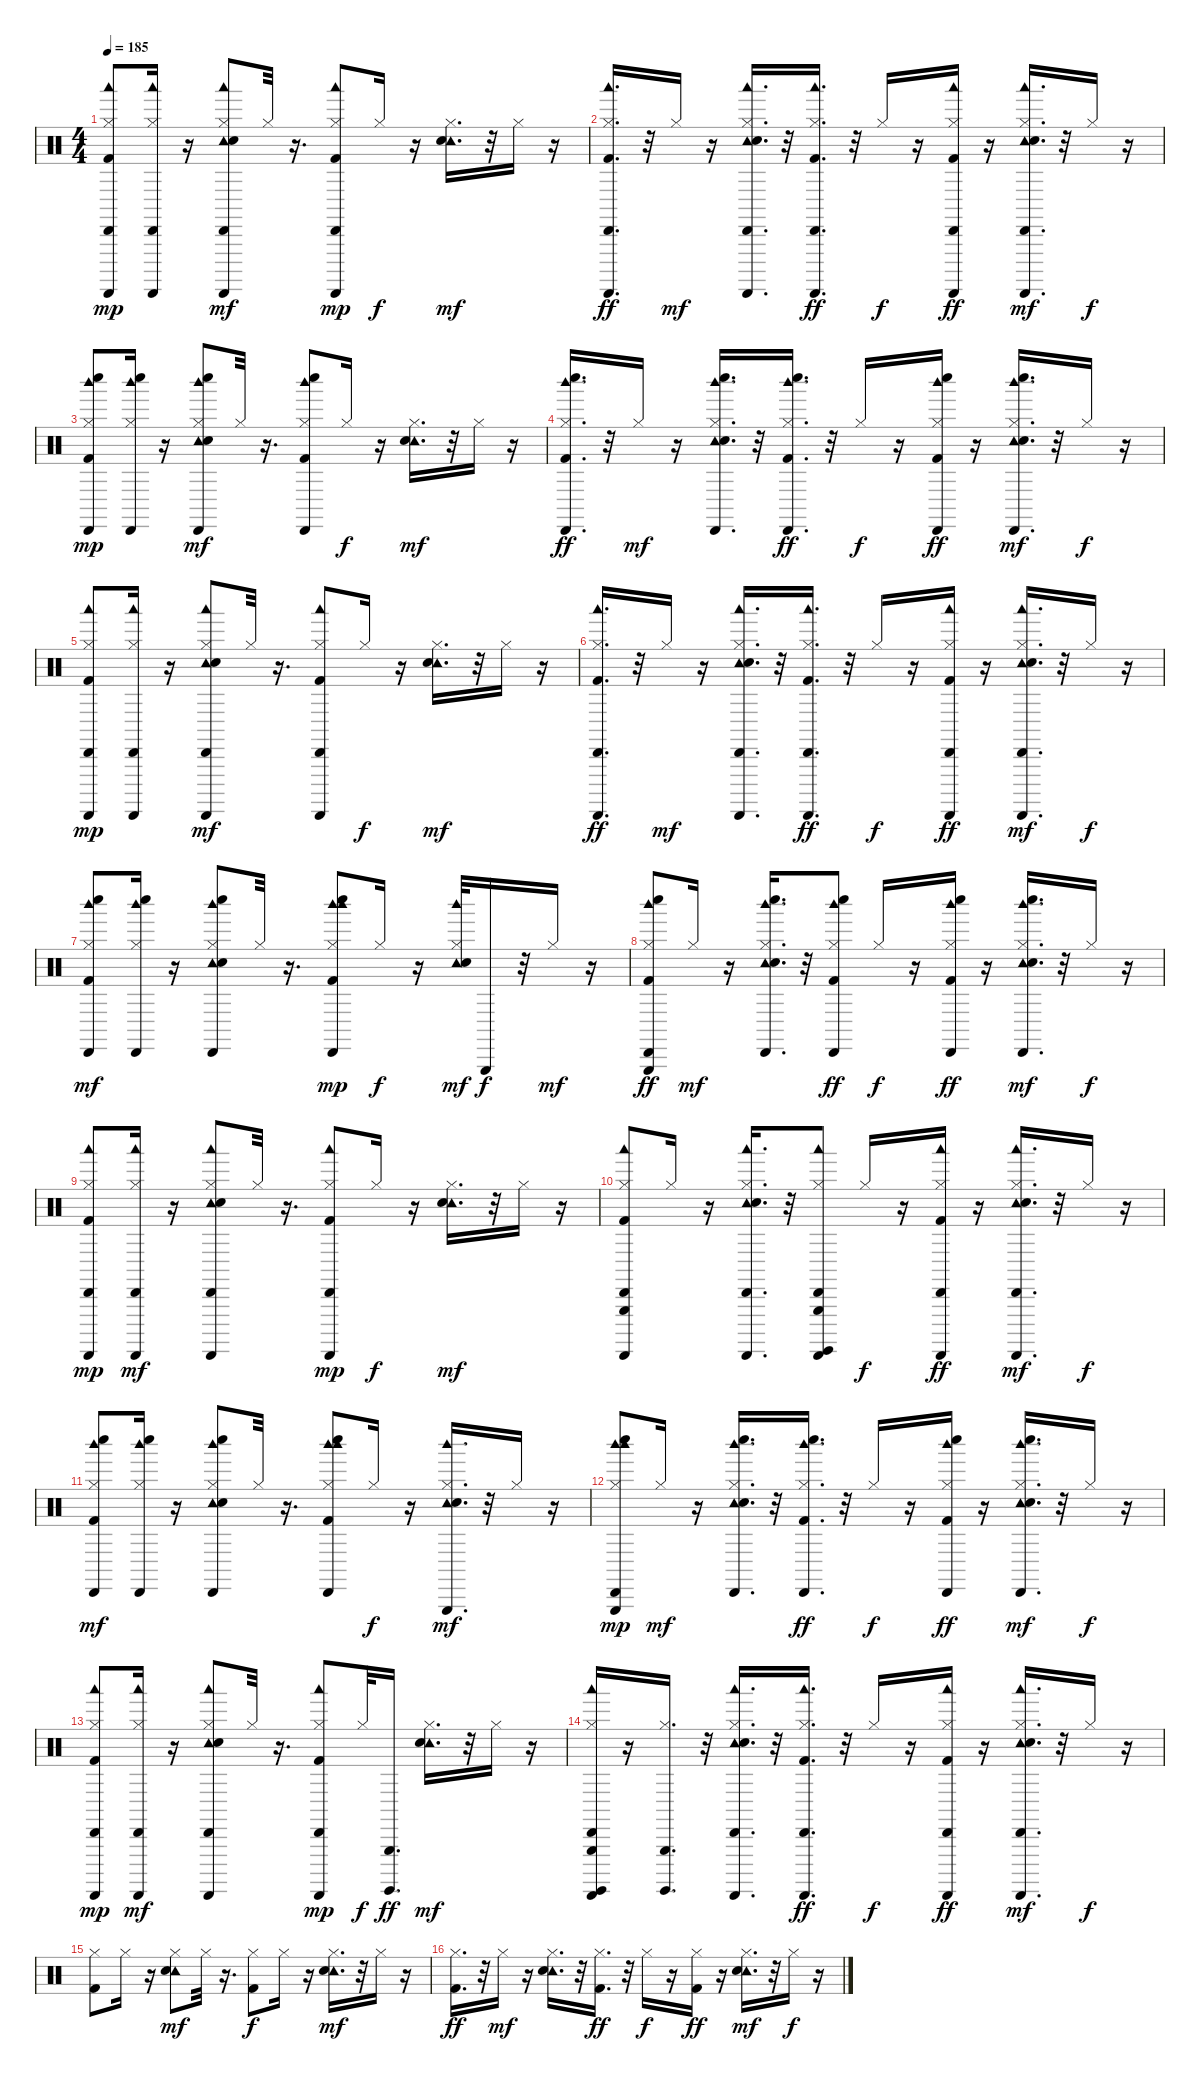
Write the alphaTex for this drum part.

\track "" {instrument percussion}
\staff {score}
\articulation defaults
\ts (4 4)
\tempo 185
\clef neutral
\ks c
("Cabasa (hit)" "Woodblock low (hit)" "Guiro (scrap-return)" "Hi-Hat (closed)" "Kick (hit) 2").8{dy mp} ("Cabasa (hit)" "Guiro (scrap-return)" "Woodblock low (hit)" "Hi-Hat (closed)").16 r.16 ("Cabasa (hit)" "Woodblock low (hit)" "Guiro (scrap-return)" "Tambourine (hit)" "Hi-Hat (closed)" "Snare (hit) 2").8{dy mf} "Hi-Hat (closed)".32 r.16{d} ("Woodblock low (hit)" "Cabasa (hit)" "Guiro (scrap-return)" "Hi-Hat (closed)" "Kick (hit) 2").8{dy mp} "Hi-Hat (closed)".16{dy f} r.16 ("Tambourine (hit)" "Hi-Hat (closed)" "Snare (hit) 2").16{d dy mf} r.32 "Hi-Hat (closed)".16 r.16 |
("Cabasa (hit)" "Guiro (scrap-return)" "Woodblock low (hit)" "Hi-Hat (closed)" "Kick (hit) 2").16{d dy ff} r.32 "Hi-Hat (closed)".16{dy mf} r.16 ("Guiro (scrap-return)" "Cabasa (hit)" "Woodblock low (hit)" "Tambourine (hit)" "Hi-Hat (closed)" "Snare (hit) 2").16{d} r.32 ("Cabasa (hit)" "Woodblock low (hit)" "Guiro (scrap-return)" "Hi-Hat (closed)" "Kick (hit) 2").16{d dy ff} r.32 "Hi-Hat (closed)".16{dy f} r.16 ("Cabasa (hit)" "Woodblock low (hit)" "Guiro (scrap-return)" "Hi-Hat (closed)" "Kick (hit) 2").16{dy ff} r.16 ("Woodblock low (hit)" "Cabasa (hit)" "Guiro (scrap-return)" "Tambourine (hit)" "Hi-Hat (closed)" "Snare (hit) 2").16{d dy mf} r.32 "Hi-Hat (closed)".16{dy f} r.16 |
("Whistle low (hit)" "Woodblock high (hit)" "Cabasa (hit)" "Hi-Hat (closed)" "Kick (hit) 2").8{dy mp} ("Cabasa (hit)" "Woodblock high (hit)" "Whistle low (hit)" "Hi-Hat (closed)").16 r.16 ("Whistle low (hit)" "Cabasa (hit)" "Woodblock high (hit)" "Tambourine (hit)" "Hi-Hat (closed)" "Snare (hit) 2").8{dy mf} "Hi-Hat (closed)".32 r.16{d} ("Cabasa (hit)" "Woodblock high (hit)" "Whistle low (hit)" "Hi-Hat (closed)" "Kick (hit) 2").8 "Hi-Hat (closed)".16{dy f} r.16 ("Tambourine (hit)" "Hi-Hat (closed)" "Snare (hit) 2").16{d dy mf} r.32 "Hi-Hat (closed)".16 r.16 |
("Cabasa (hit)" "Whistle low (hit)" "Woodblock high (hit)" "Hi-Hat (closed)" "Kick (hit) 2").16{d dy ff} r.32 "Hi-Hat (closed)".16{dy mf} r.16 ("Whistle low (hit)" "Cabasa (hit)" "Woodblock high (hit)" "Tambourine (hit)" "Hi-Hat (closed)" "Snare (hit) 2").16{d} r.32 ("Whistle low (hit)" "Cabasa (hit)" "Woodblock high (hit)" "Hi-Hat (closed)" "Kick (hit) 2").16{d dy ff} r.32 "Hi-Hat (closed)".16{dy f} r.16 ("Cabasa (hit)" "Whistle low (hit)" "Woodblock high (hit)" "Hi-Hat (closed)" "Kick (hit) 2").16{dy ff} r.16 ("Cabasa (hit)" "Whistle low (hit)" "Woodblock high (hit)" "Tambourine (hit)" "Hi-Hat (closed)" "Snare (hit) 2").16{d dy mf} r.32 "Hi-Hat (closed)".16{dy f} r.16 |
("Cabasa (hit)" "Woodblock low (hit)" "Guiro (scrap-return)" "Hi-Hat (closed)" "Kick (hit) 2").8{dy mp} ("Woodblock low (hit)" "Cabasa (hit)" "Guiro (scrap-return)" "Hi-Hat (closed)").16 r.16 ("Woodblock low (hit)" "Guiro (scrap-return)" "Cabasa (hit)" "Tambourine (hit)" "Hi-Hat (closed)" "Snare (hit) 2").8{dy mf} "Hi-Hat (closed)".32 r.16{d} ("Woodblock low (hit)" "Guiro (scrap-return)" "Cabasa (hit)" "Hi-Hat (closed)" "Kick (hit) 2").8 "Hi-Hat (closed)".16{dy f} r.16 ("Tambourine (hit)" "Hi-Hat (closed)" "Snare (hit) 2").16{d dy mf} r.32 "Hi-Hat (closed)".16 r.16 |
("Cabasa (hit)" "Woodblock low (hit)" "Guiro (scrap-return)" "Hi-Hat (closed)" "Kick (hit) 2").16{d dy ff} r.32 "Hi-Hat (closed)".16{dy mf} r.16 ("Cabasa (hit)" "Woodblock low (hit)" "Guiro (scrap-return)" "Tambourine (hit)" "Hi-Hat (closed)" "Snare (hit) 2").16{d} r.32 ("Cabasa (hit)" "Woodblock low (hit)" "Guiro (scrap-return)" "Hi-Hat (closed)" "Kick (hit) 2").16{d dy ff} r.32 "Hi-Hat (closed)".16{dy f} r.16 ("Cabasa (hit)" "Woodblock low (hit)" "Guiro (scrap-return)" "Hi-Hat (closed)" "Kick (hit) 2").16{dy ff} r.16 ("Woodblock low (hit)" "Cabasa (hit)" "Guiro (scrap-return)" "Tambourine (hit)" "Hi-Hat (closed)" "Snare (hit) 2").16{d dy mf} r.32 "Hi-Hat (closed)".16{dy f} r.16 |
("Whistle low (hit)" "Cabasa (hit)" "Woodblock high (hit)" "Hi-Hat (closed)" "Kick (hit) 2").8{dy mf} ("Whistle low (hit)" "Cabasa (hit)" "Woodblock high (hit)" "Hi-Hat (closed)").16 r.16 ("Cabasa (hit)" "Whistle low (hit)" "Woodblock high (hit)" "Tambourine (hit)" "Hi-Hat (closed)" "Snare (hit) 2").8 "Hi-Hat (closed)".32 r.16{d} ("Woodblock high (hit)" "Whistle low (hit)" "Cabasa (hit)" "Hi-Hat (closed)" "Kick (hit) 2" "Woodblock high (hit)").8{dy mp} "Hi-Hat (closed)".16{dy f} r.16 ("Tambourine (hit)" "Hi-Hat (closed)" "Snare (hit) 2" "Woodblock high (hit)").32{dy mf} "Triangle (hit)".16{dy f} r.32 "Hi-Hat (closed)".16{dy mf} r.16 |
("Cabasa (hit)" "Whistle low (hit)" "Woodblock high (hit)" "Hi-Hat (closed)" "Kick (hit) 2" "Triangle (hit)").8{dy ff} "Hi-Hat (closed)".16{dy mf} r.16 ("Cabasa (hit)" "Whistle low (hit)" "Woodblock high (hit)" "Tambourine (hit)" "Hi-Hat (closed)" "Snare (hit) 2").16{d} r.32 ("Whistle low (hit)" "Cabasa (hit)" "Woodblock high (hit)" "Hi-Hat (closed)" "Kick (hit) 2").8{dy ff} "Hi-Hat (closed)".16{dy f} r.16 ("Cabasa (hit)" "Whistle low (hit)" "Woodblock high (hit)" "Hi-Hat (closed)" "Kick (hit) 2").16{dy ff} r.16 ("Whistle low (hit)" "Cabasa (hit)" "Woodblock high (hit)" "Tambourine (hit)" "Hi-Hat (closed)" "Snare (hit) 2").16{d dy mf} r.32 "Hi-Hat (closed)".16{dy f} r.16 |
("Woodblock low (hit)" "Cabasa (hit)" "Guiro (scrap-return)" "Hi-Hat (closed)" "Kick (hit) 2").8{dy mp} ("Woodblock low (hit)" "Cabasa (hit)" "Guiro (scrap-return)" "Hi-Hat (closed)").16{dy mf} r.16 ("Guiro (scrap-return)" "Woodblock low (hit)" "Cabasa (hit)" "Tambourine (hit)" "Hi-Hat (closed)" "Snare (hit) 2").8 "Hi-Hat (closed)".32 r.16{d} ("Woodblock low (hit)" "Guiro (scrap-return)" "Cabasa (hit)" "Hi-Hat (closed)" "Kick (hit) 2").8{dy mp} "Hi-Hat (closed)".16{dy f} r.16 ("Tambourine (hit)" "Hi-Hat (closed)" "Snare (hit) 2").16{d dy mf} r.32 "Hi-Hat (closed)".16 r.16 |
("Cabasa (hit)" "Woodblock low (hit)" "Guiro (scrap-return)" "Hi-Hat (closed)" "Kick (hit) 2" "Triangle (hit)").8 "Hi-Hat (closed)".16 r.16 ("Cabasa (hit)" "Woodblock low (hit)" "Guiro (scrap-return)" "Tambourine (hit)" "Hi-Hat (closed)" "Snare (hit) 2").16{d} r.32 ("Woodblock low (hit)" "Cabasa (hit)" "Guiro (scrap-return)" "Surdo (hit)" "Triangle (hit)" "Hi-Hat (closed)").8 "Hi-Hat (closed)".16{dy f} r.16 ("Cabasa (hit)" "Woodblock low (hit)" "Guiro (scrap-return)" "Hi-Hat (closed)" "Kick (hit) 2").16{dy ff} r.16 ("Woodblock low (hit)" "Cabasa (hit)" "Guiro (scrap-return)" "Tambourine (hit)" "Hi-Hat (closed)" "Snare (hit) 2").16{d dy mf} r.32 "Hi-Hat (closed)".16{dy f} r.16 |
("Cabasa (hit)" "Whistle low (hit)" "Woodblock high (hit)" "Hi-Hat (closed)" "Kick (hit) 2").8{dy mf} ("Cabasa (hit)" "Whistle low (hit)" "Woodblock high (hit)" "Hi-Hat (closed)").16 r.16 ("Whistle low (hit)" "Cabasa (hit)" "Woodblock high (hit)" "Tambourine (hit)" "Hi-Hat (closed)" "Snare (hit) 2").8 "Hi-Hat (closed)".32 r.16{d} ("Whistle low (hit)" "Woodblock high (hit)" "Cabasa (hit)" "Hi-Hat (closed)" "Kick (hit) 2" "Woodblock high (hit)").8 "Hi-Hat (closed)".16{dy f} r.16 ("Tambourine (hit)" "Hi-Hat (closed)" "Snare (hit) 2" "Triangle (hit)" "Woodblock high (hit)").16{d dy mf} r.32 "Hi-Hat (closed)".16 r.16 |
("Triangle (hit)" "Woodblock high (hit)" "Cabasa (hit)" "Whistle low (hit)" "Woodblock high (hit)" "Hi-Hat (closed)").8{dy mp} "Hi-Hat (closed)".16{dy mf} r.16 ("Whistle low (hit)" "Cabasa (hit)" "Woodblock high (hit)" "Tambourine (hit)" "Hi-Hat (closed)" "Snare (hit) 2").16{d} r.32 ("Whistle low (hit)" "Cabasa (hit)" "Woodblock high (hit)" "Hi-Hat (closed)" "Kick (hit) 2").16{d dy ff} r.32 "Hi-Hat (closed)".16{dy f} r.16 ("Woodblock high (hit)" "Cabasa (hit)" "Whistle low (hit)" "Hi-Hat (closed)" "Kick (hit) 2").16{dy ff} r.16 ("Whistle low (hit)" "Cabasa (hit)" "Woodblock high (hit)" "Tambourine (hit)" "Hi-Hat (closed)" "Snare (hit) 2").16{d dy mf} r.32 "Hi-Hat (closed)".16{dy f} r.16 |
("Woodblock low (hit)" "Cabasa (hit)" "Guiro (scrap-return)" "Hi-Hat (closed)" "Kick (hit) 2").8{dy mp} ("Cabasa (hit)" "Woodblock low (hit)" "Guiro (scrap-return)" "Hi-Hat (closed)").16{dy mf} r.16 ("Guiro (scrap-return)" "Cabasa (hit)" "Woodblock low (hit)" "Tambourine (hit)" "Hi-Hat (closed)" "Snare (hit) 2").8 "Hi-Hat (closed)".32 r.16{d} ("Woodblock low (hit)" "Guiro (scrap-return)" "Cabasa (hit)" "Hi-Hat (closed)" "Kick (hit) 2").8{dy mp} "Hi-Hat (closed)".32{dy f} ("Triangle (hit)" "Surdo (hit)").16{d dy ff} ("Tambourine (hit)" "Hi-Hat (closed)" "Snare (hit) 2").16{d dy mf} r.32 "Hi-Hat (closed)".16 r.16 |
("Cabasa (hit)" "Woodblock low (hit)" "Guiro (scrap-return)" "Surdo (hit)" "Triangle (hit)" "Hi-Hat (closed)").16 r.16 ("Hi-Hat (closed)" "Surdo (hit)" "Triangle (hit)").16{d} r.32 ("Cabasa (hit)" "Woodblock low (hit)" "Guiro (scrap-return)" "Tambourine (hit)" "Hi-Hat (closed)" "Snare (hit) 2").16{d} r.32 ("Cabasa (hit)" "Woodblock low (hit)" "Guiro (scrap-return)" "Hi-Hat (closed)" "Kick (hit) 2").16{d dy ff} r.32 "Hi-Hat (closed)".16{dy f} r.16 ("Woodblock low (hit)" "Cabasa (hit)" "Guiro (scrap-return)" "Hi-Hat (closed)" "Kick (hit) 2").16{dy ff} r.16 ("Woodblock low (hit)" "Guiro (scrap-return)" "Cabasa (hit)" "Tambourine (hit)" "Hi-Hat (closed)" "Snare (hit) 2").16{d dy mf} r.32 "Hi-Hat (closed)".16{dy f} r.16 |
("Hi-Hat (closed)" "Kick (hit) 2").8 "Hi-Hat (closed)".16 r.16 ("Tambourine (hit)" "Hi-Hat (closed)" "Snare (hit) 2").8{dy mf} "Hi-Hat (closed)".32 r.16{d} ("Hi-Hat (closed)" "Kick (hit) 2").8{dy f} "Hi-Hat (closed)".16 r.16 ("Tambourine (hit)" "Hi-Hat (closed)" "Snare (hit) 2").16{d dy mf} r.32 "Hi-Hat (closed)".16 r.16 |
("Hi-Hat (closed)" "Kick (hit) 2").16{d dy ff} r.32 "Hi-Hat (closed)".16{dy mf} r.16 ("Tambourine (hit)" "Hi-Hat (closed)" "Snare (hit) 2").16{d} r.32 ("Hi-Hat (closed)" "Kick (hit) 2").16{d dy ff} r.32 "Hi-Hat (closed)".16{dy f} r.16 ("Hi-Hat (closed)" "Kick (hit) 2").16{dy ff} r.16 ("Tambourine (hit)" "Hi-Hat (closed)" "Snare (hit) 2").16{d dy mf} r.32 "Hi-Hat (closed)".16{dy f} r.16
